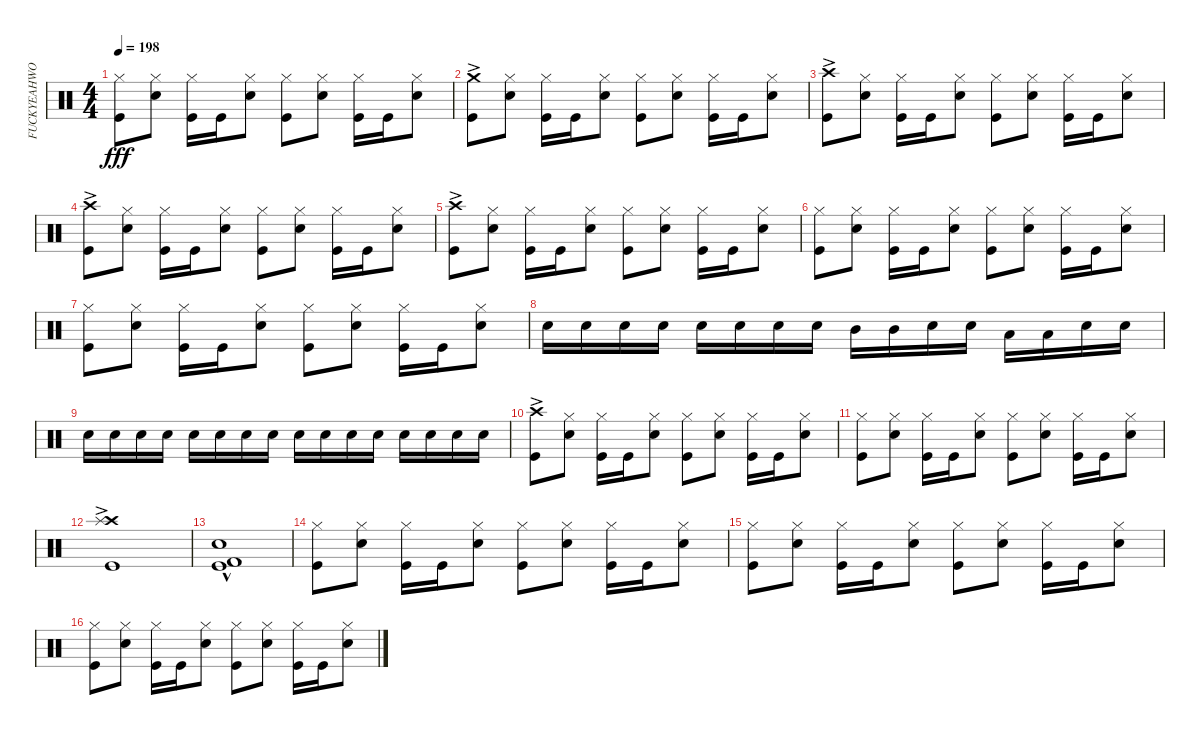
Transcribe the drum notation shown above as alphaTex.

\track ("FUCKYEAHWOOTDAVEMACKINTOSH!(Percussion)" "FUCKYEAHWO") {instrument percussion}
\staff {score}
\articulation defaults
\ts (4 4)
\tempo 198
\clef neutral
\ks c
("Kick (hit)" "Hi-Hat (closed)").8{dy fff} ("Snare (hit) 2" "Hi-Hat (closed)").8 ("Kick (hit)" "Hi-Hat (closed)").16 "Kick (hit)".16 ("Hi-Hat (closed)" "Snare (hit) 2").8 ("Kick (hit)" "Hi-Hat (closed)").8 ("Snare (hit) 2" "Hi-Hat (closed)").8 ("Kick (hit)" "Hi-Hat (closed)").16 "Kick (hit)".16 ("Snare (hit) 2" "Hi-Hat (closed)").8 |
("Kick (hit)" "Crash medium (hit)"{ac}).8 ("Snare (hit) 2" "Hi-Hat (closed)").8 ("Kick (hit)" "Hi-Hat (closed)").16 "Kick (hit)".16 ("Hi-Hat (closed)" "Snare (hit) 2").8 ("Kick (hit)" "Hi-Hat (closed)").8 ("Snare (hit) 2" "Hi-Hat (closed)").8 ("Kick (hit)" "Hi-Hat (closed)").16 "Kick (hit)".16 ("Snare (hit) 2" "Hi-Hat (closed)").8 |
("Kick (hit)" "Crash high (hit)"{ac}).8 ("Snare (hit) 2" "Hi-Hat (closed)").8 ("Kick (hit)" "Hi-Hat (closed)").16 "Kick (hit)".16 ("Hi-Hat (closed)" "Snare (hit) 2").8 ("Kick (hit)" "Hi-Hat (closed)").8 ("Snare (hit) 2" "Hi-Hat (closed)").8 ("Kick (hit)" "Hi-Hat (closed)").16 "Kick (hit)".16 ("Snare (hit) 2" "Hi-Hat (closed)").8 |
("Kick (hit)" "Crash high (hit)"{ac}).8 ("Snare (hit) 2" "Hi-Hat (closed)").8 ("Kick (hit)" "Hi-Hat (closed)").16 "Kick (hit)".16 ("Hi-Hat (closed)" "Snare (hit) 2").8 ("Kick (hit)" "Hi-Hat (closed)").8 ("Snare (hit) 2" "Hi-Hat (closed)").8 ("Kick (hit)" "Hi-Hat (closed)").16 "Kick (hit)".16 ("Snare (hit) 2" "Hi-Hat (closed)").8 |
("Kick (hit)" "Crash high (hit)"{ac}).8 ("Snare (hit) 2" "Hi-Hat (closed)").8 ("Kick (hit)" "Hi-Hat (closed)").16 "Kick (hit)".16 ("Hi-Hat (closed)" "Snare (hit) 2").8 ("Kick (hit)" "Hi-Hat (closed)").8 ("Snare (hit) 2" "Hi-Hat (closed)").8 ("Kick (hit)" "Hi-Hat (closed)").16 "Kick (hit)".16 ("Snare (hit) 2" "Hi-Hat (closed)").8 |
("Kick (hit)" "Hi-Hat (closed)").8 ("Snare (hit) 2" "Hi-Hat (closed)").8 ("Kick (hit)" "Hi-Hat (closed)").16 "Kick (hit)".16 ("Hi-Hat (closed)" "Snare (hit) 2").8 ("Kick (hit)" "Hi-Hat (closed)").8 ("Snare (hit) 2" "Hi-Hat (closed)").8 ("Kick (hit)" "Hi-Hat (closed)").16 "Kick (hit)".16 ("Snare (hit) 2" "Hi-Hat (closed)").8 |
("Kick (hit)" "Hi-Hat (closed)").8 ("Snare (hit) 2" "Hi-Hat (closed)").8 ("Kick (hit)" "Hi-Hat (closed)").16 "Kick (hit)".16 ("Hi-Hat (closed)" "Snare (hit) 2").8 ("Kick (hit)" "Hi-Hat (closed)").8 ("Snare (hit) 2" "Hi-Hat (closed)").8 ("Kick (hit)" "Hi-Hat (closed)").16 "Kick (hit)".16 ("Snare (hit) 2" "Hi-Hat (closed)").8 |
"Snare (hit) 2".16 "Snare (hit) 2".16 "Snare (hit) 2".16 "Snare (hit) 2".16 "Snare (hit) 2".16 "Snare (hit) 2".16 "Snare (hit) 2".16 "Snare (hit) 2".16 "Mid Tom (hit)".16 "Mid Tom (hit)".16 "Snare (hit) 2".16 "Snare (hit) 2".16 "Low Tom (hit)".16 "Low Tom (hit)".16 "Snare (hit) 2".16 "Snare (hit) 2".16 |
"Snare (hit) 2".16 "Snare (hit) 2".16 "Snare (hit) 2".16 "Snare (hit) 2".16 "Snare (hit) 2".16 "Snare (hit) 2".16 "Snare (hit) 2".16 "Snare (hit) 2".16 "Snare (hit) 2".16 "Snare (hit) 2".16 "Snare (hit) 2".16 "Snare (hit) 2".16 "Snare (hit) 2".16 "Snare (hit) 2".16 "Snare (hit) 2".16 "Snare (hit) 2".16 |
("Kick (hit)" "Crash high (hit)"{ac}).8 ("Snare (hit) 2" "Hi-Hat (closed)").8 ("Kick (hit)" "Hi-Hat (closed)").16 "Kick (hit)".16 ("Hi-Hat (closed)" "Snare (hit) 2").8 ("Kick (hit)" "Hi-Hat (closed)").8 ("Snare (hit) 2" "Hi-Hat (closed)").8 ("Kick (hit)" "Hi-Hat (closed)").16 "Kick (hit)".16 ("Snare (hit) 2" "Hi-Hat (closed)").8 |
("Kick (hit)" "Hi-Hat (closed)").8 ("Snare (hit) 2" "Hi-Hat (closed)").8 ("Kick (hit)" "Hi-Hat (closed)").16 "Kick (hit)".16 ("Hi-Hat (closed)" "Snare (hit) 2").8 ("Kick (hit)" "Hi-Hat (closed)").8 ("Snare (hit) 2" "Hi-Hat (closed)").8 ("Kick (hit)" "Hi-Hat (closed)").16 "Kick (hit)".16 ("Snare (hit) 2" "Hi-Hat (closed)").8 |
("Crash high (hit)"{ac} "Kick (hit)"{ac} "Splash (hit)"{ac}).1 |
("Kick (hit)"{hac} "Kick (hit) 2" "Snare (hit) 2").1 |
("Kick (hit)" "Hi-Hat (closed)").8 ("Snare (hit) 2" "Hi-Hat (closed)").8 ("Kick (hit)" "Hi-Hat (closed)").16 "Kick (hit)".16 ("Hi-Hat (closed)" "Snare (hit) 2").8 ("Kick (hit)" "Hi-Hat (closed)").8 ("Snare (hit) 2" "Hi-Hat (closed)").8 ("Kick (hit)" "Hi-Hat (closed)").16 "Kick (hit)".16 ("Snare (hit) 2" "Hi-Hat (closed)").8 |
("Kick (hit)" "Hi-Hat (closed)").8 ("Snare (hit) 2" "Hi-Hat (closed)").8 ("Kick (hit)" "Hi-Hat (closed)").16 "Kick (hit)".16 ("Hi-Hat (closed)" "Snare (hit) 2").8 ("Kick (hit)" "Hi-Hat (closed)").8 ("Snare (hit) 2" "Hi-Hat (closed)").8 ("Kick (hit)" "Hi-Hat (closed)").16 "Kick (hit)".16 ("Snare (hit) 2" "Hi-Hat (closed)").8 |
("Kick (hit)" "Hi-Hat (closed)").8 ("Snare (hit) 2" "Hi-Hat (closed)").8 ("Kick (hit)" "Hi-Hat (closed)").16 "Kick (hit)".16 ("Hi-Hat (closed)" "Snare (hit) 2").8 ("Kick (hit)" "Hi-Hat (closed)").8 ("Snare (hit) 2" "Hi-Hat (closed)").8 ("Kick (hit)" "Hi-Hat (closed)").16 "Kick (hit)".16 ("Snare (hit) 2" "Hi-Hat (closed)").8
